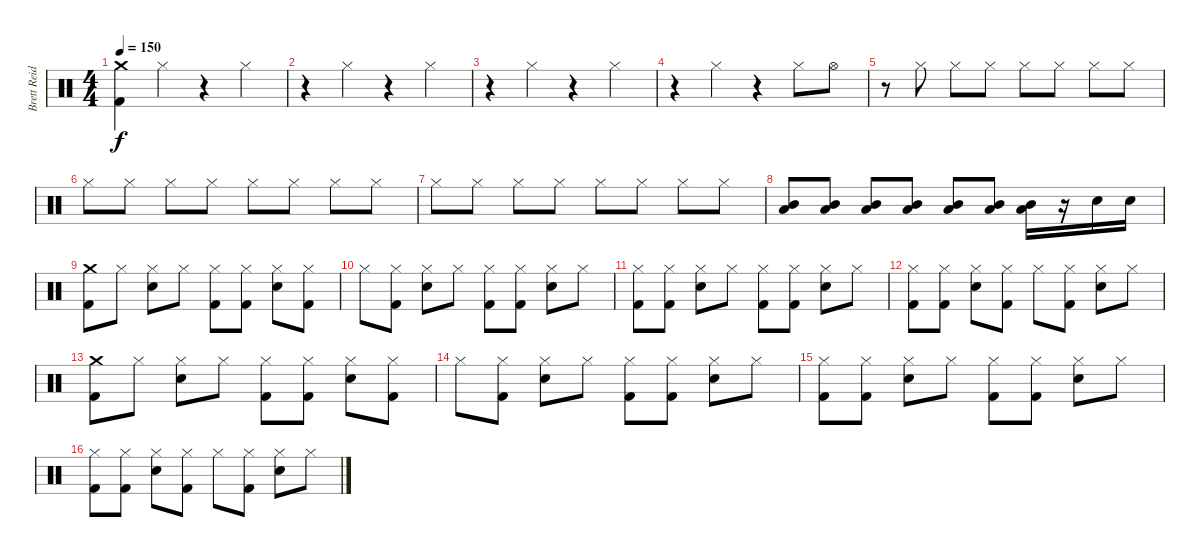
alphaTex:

\track ("Brett Reid" "Brett Reid") {instrument percussion}
\staff {score}
\articulation defaults
\ts (4 4)
\tempo 150
\clef neutral
\ks c
("Crash medium (hit)" "Kick (hit) 2").4{dy f} "Hi-Hat (closed)".4 r.4 "Hi-Hat (closed)".4 |
r.4 "Hi-Hat (closed)".4 r.4 "Hi-Hat (closed)".4 |
r.4 "Hi-Hat (closed)".4 r.4 "Hi-Hat (closed)".4 |
r.4 "Hi-Hat (closed)".4 r.4 "Hi-Hat (closed)".8 "Hi-Hat (open)".8 |
r.8 "Hi-Hat (closed)".8 "Hi-Hat (closed)".8 "Hi-Hat (closed)".8 "Hi-Hat (closed)".8 "Hi-Hat (closed)".8 "Hi-Hat (closed)".8 "Hi-Hat (closed)".8 |
"Hi-Hat (closed)".8 "Hi-Hat (closed)".8 "Hi-Hat (closed)".8 "Hi-Hat (closed)".8 "Hi-Hat (closed)".8 "Hi-Hat (closed)".8 "Hi-Hat (closed)".8 "Hi-Hat (closed)".8 |
"Hi-Hat (closed)".8 "Hi-Hat (closed)".8 "Hi-Hat (closed)".8 "Hi-Hat (closed)".8 "Hi-Hat (closed)".8 "Hi-Hat (closed)".8 "Hi-Hat (closed)".8 "Hi-Hat (closed)".8 |
("Low Floor Tom (hit)" "Mid Tom (hit)").8 ("Low Floor Tom (hit)" "Mid Tom (hit)").8 ("Low Floor Tom (hit)" "Mid Tom (hit)").8 ("Low Floor Tom (hit)" "Mid Tom (hit)").8 ("Low Floor Tom (hit)" "Mid Tom (hit)").8 ("Low Floor Tom (hit)" "Mid Tom (hit)").8 ("Low Floor Tom (hit)" "Mid Tom (hit)").16 r.16 "Snare (hit) 2".16 "Snare (hit) 2".16 |
("Crash medium (hit)" "Kick (hit) 2").8 "Hi-Hat (closed)".8 ("Hi-Hat (closed)" "Snare (hit) 2").8 "Hi-Hat (closed)".8 ("Hi-Hat (closed)" "Kick (hit) 2").8 ("Hi-Hat (closed)" "Kick (hit) 2").8 ("Hi-Hat (closed)" "Snare (hit) 2").8 ("Hi-Hat (closed)" "Kick (hit) 2").8 |
"Hi-Hat (closed)".8 ("Hi-Hat (closed)" "Kick (hit) 2").8 ("Hi-Hat (closed)" "Snare (hit) 2").8 "Hi-Hat (closed)".8 ("Hi-Hat (closed)" "Kick (hit) 2").8 ("Hi-Hat (closed)" "Kick (hit) 2").8 ("Hi-Hat (closed)" "Snare (hit) 2").8 "Hi-Hat (closed)".8 |
("Hi-Hat (closed)" "Kick (hit) 2").8 ("Hi-Hat (closed)" "Kick (hit) 2").8 ("Hi-Hat (closed)" "Snare (hit) 2").8 "Hi-Hat (closed)".8 ("Hi-Hat (closed)" "Kick (hit) 2").8 ("Hi-Hat (closed)" "Kick (hit) 2").8 ("Hi-Hat (closed)" "Snare (hit) 2").8 "Hi-Hat (closed)".8 |
("Hi-Hat (closed)" "Kick (hit) 2").8 ("Hi-Hat (closed)" "Kick (hit) 2").8 ("Hi-Hat (closed)" "Snare (hit) 2").8 ("Hi-Hat (closed)" "Kick (hit) 2").8 "Hi-Hat (closed)".8 ("Hi-Hat (closed)" "Kick (hit) 2").8 ("Hi-Hat (closed)" "Snare (hit) 2").8 "Hi-Hat (closed)".8 |
("Crash medium (hit)" "Kick (hit) 2").8 "Hi-Hat (closed)".8 ("Hi-Hat (closed)" "Snare (hit) 2").8 "Hi-Hat (closed)".8 ("Hi-Hat (closed)" "Kick (hit) 2").8 ("Hi-Hat (closed)" "Kick (hit) 2").8 ("Hi-Hat (closed)" "Snare (hit) 2").8 ("Hi-Hat (closed)" "Kick (hit) 2").8 |
"Hi-Hat (closed)".8 ("Hi-Hat (closed)" "Kick (hit) 2").8 ("Hi-Hat (closed)" "Snare (hit) 2").8 "Hi-Hat (closed)".8 ("Hi-Hat (closed)" "Kick (hit) 2").8 ("Hi-Hat (closed)" "Kick (hit) 2").8 ("Hi-Hat (closed)" "Snare (hit) 2").8 "Hi-Hat (closed)".8 |
("Hi-Hat (closed)" "Kick (hit) 2").8 ("Hi-Hat (closed)" "Kick (hit) 2").8 ("Hi-Hat (closed)" "Snare (hit) 2").8 "Hi-Hat (closed)".8 ("Hi-Hat (closed)" "Kick (hit) 2").8 ("Hi-Hat (closed)" "Kick (hit) 2").8 ("Hi-Hat (closed)" "Snare (hit) 2").8 "Hi-Hat (closed)".8 |
("Hi-Hat (closed)" "Kick (hit) 2").8 ("Hi-Hat (closed)" "Kick (hit) 2").8 ("Hi-Hat (closed)" "Snare (hit) 2").8 ("Hi-Hat (closed)" "Kick (hit) 2").8 "Hi-Hat (closed)".8 ("Hi-Hat (closed)" "Kick (hit) 2").8 ("Hi-Hat (closed)" "Snare (hit) 2").8 "Hi-Hat (closed)".8
